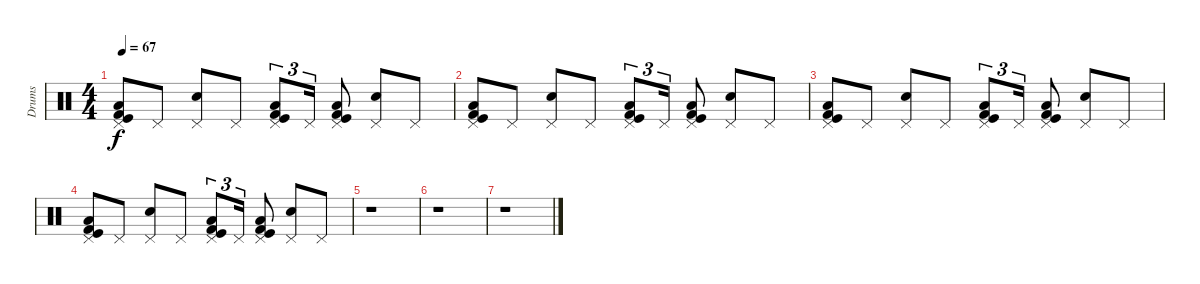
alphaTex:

\track ("Drums" "Drums") {instrument percussion}
\staff {score}
\articulation defaults
\ts (4 4)
\tempo 67
\clef neutral
\ks c
("Pedal Hi-Hat (hit)" "Kick (hit) 2" "Kick (hit)" "Low Tom (hit)").8{dy f} "Pedal Hi-Hat (hit)".8 ("Pedal Hi-Hat (hit)" "Electric Snare (hit)").8 "Pedal Hi-Hat (hit)".8 ("Pedal Hi-Hat (hit)" "Kick (hit) 2" "Kick (hit)" "Low Tom (hit)").8{tu (3 2)} "Pedal Hi-Hat (hit)".16{tu (3 2)} ("Pedal Hi-Hat (hit)" "Kick (hit) 2" "Kick (hit)" "Low Tom (hit)").8 ("Pedal Hi-Hat (hit)" "Electric Snare (hit)").8 "Pedal Hi-Hat (hit)".8 |
("Pedal Hi-Hat (hit)" "Kick (hit) 2" "Kick (hit)" "Low Tom (hit)").8 "Pedal Hi-Hat (hit)".8 ("Pedal Hi-Hat (hit)" "Electric Snare (hit)").8 "Pedal Hi-Hat (hit)".8 ("Pedal Hi-Hat (hit)" "Kick (hit) 2" "Kick (hit)" "Low Tom (hit)").8{tu (3 2)} "Pedal Hi-Hat (hit)".16{tu (3 2)} ("Pedal Hi-Hat (hit)" "Kick (hit) 2" "Kick (hit)" "Low Tom (hit)").8 ("Pedal Hi-Hat (hit)" "Electric Snare (hit)").8 "Pedal Hi-Hat (hit)".8 |
("Pedal Hi-Hat (hit)" "Kick (hit) 2" "Kick (hit)" "Low Tom (hit)").8 "Pedal Hi-Hat (hit)".8 ("Pedal Hi-Hat (hit)" "Electric Snare (hit)").8 "Pedal Hi-Hat (hit)".8 ("Pedal Hi-Hat (hit)" "Kick (hit) 2" "Kick (hit)" "Low Tom (hit)").8{tu (3 2)} "Pedal Hi-Hat (hit)".16{tu (3 2)} ("Pedal Hi-Hat (hit)" "Kick (hit) 2" "Kick (hit)" "Low Tom (hit)").8 ("Pedal Hi-Hat (hit)" "Electric Snare (hit)").8 "Pedal Hi-Hat (hit)".8 |
("Pedal Hi-Hat (hit)" "Kick (hit) 2" "Kick (hit)" "Low Tom (hit)").8 "Pedal Hi-Hat (hit)".8 ("Pedal Hi-Hat (hit)" "Electric Snare (hit)").8 "Pedal Hi-Hat (hit)".8 ("Pedal Hi-Hat (hit)" "Kick (hit) 2" "Kick (hit)" "Low Tom (hit)").8{tu (3 2)} "Pedal Hi-Hat (hit)".16{tu (3 2)} ("Pedal Hi-Hat (hit)" "Kick (hit) 2" "Kick (hit)" "Low Tom (hit)").8 ("Pedal Hi-Hat (hit)" "Electric Snare (hit)").8 "Pedal Hi-Hat (hit)".8 |
r.1 |
r.1 |
r.1
